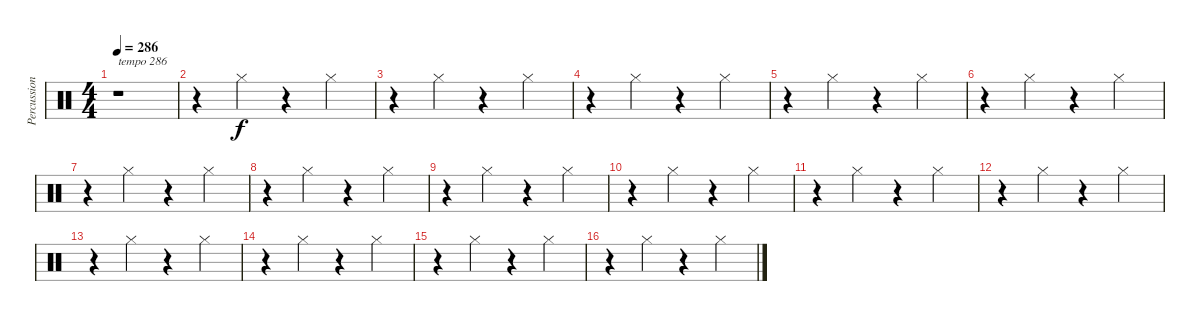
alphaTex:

\track ("Percussions" "Percussion") {instrument percussion}
\staff {score}
\articulation defaults
\ts (4 4)
\tempo 286
\clef neutral
\ks c
r.1{txt "tempo 286" dy f} |
r.4 "Hi-Hat (closed)".4 r.4 "Hi-Hat (closed)".4 |
r.4 "Hi-Hat (closed)".4 r.4 "Hi-Hat (closed)".4 |
r.4 "Hi-Hat (closed)".4 r.4 "Hi-Hat (closed)".4 |
r.4 "Hi-Hat (closed)".4 r.4 "Hi-Hat (closed)".4 |
r.4 "Hi-Hat (closed)".4 r.4 "Hi-Hat (closed)".4 |
r.4 "Hi-Hat (closed)".4 r.4 "Hi-Hat (closed)".4 |
r.4 "Hi-Hat (closed)".4 r.4 "Hi-Hat (closed)".4 |
r.4 "Hi-Hat (closed)".4 r.4 "Hi-Hat (closed)".4 |
r.4 "Hi-Hat (closed)".4 r.4 "Hi-Hat (closed)".4 |
r.4 "Hi-Hat (closed)".4 r.4 "Hi-Hat (closed)".4 |
r.4 "Hi-Hat (closed)".4 r.4 "Hi-Hat (closed)".4 |
r.4 "Hi-Hat (closed)".4 r.4 "Hi-Hat (closed)".4 |
r.4 "Hi-Hat (closed)".4 r.4 "Hi-Hat (closed)".4 |
r.4 "Hi-Hat (closed)".4 r.4 "Hi-Hat (closed)".4 |
r.4 "Hi-Hat (closed)".4 r.4 "Hi-Hat (closed)".4
